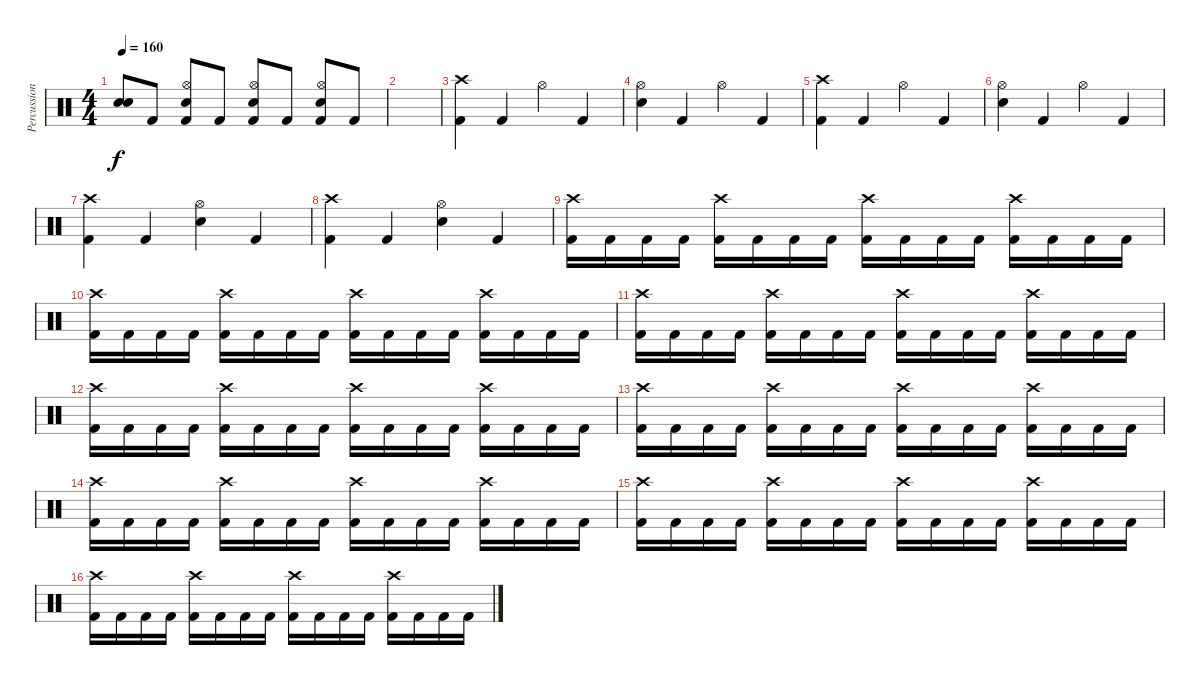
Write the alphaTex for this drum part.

\track ("Percussion" "Percussion") {instrument percussion}
\staff {score}
\articulation defaults
\ts (4 4)
\tempo 160
\clef neutral
\ks c
("Snare (hit)"{t} "Snare (hit)"{t}).8{dy f} "Kick (hit) 2".8 ("Hi-Hat (open)" "Electric Snare (hit)" "Kick (hit) 2").8 "Kick (hit) 2".8 ("Hi-Hat (open)" "Electric Snare (hit)" "Kick (hit) 2").8 "Kick (hit) 2".8 ("Hi-Hat (open)" "Electric Snare (hit)" "Kick (hit) 2").8 "Kick (hit) 2".8 |
|
("Crash high (hit)" "Kick (hit) 2").4 "Kick (hit) 2".4 "Hi-Hat (open)".4 "Kick (hit) 2".4 |
("Hi-Hat (open)" "Electric Snare (hit)").4 "Kick (hit) 2".4 "Hi-Hat (open)".4 "Kick (hit) 2".4 |
("Crash high (hit)" "Kick (hit) 2").4 "Kick (hit) 2".4 "Hi-Hat (open)".4 "Kick (hit) 2".4 |
("Hi-Hat (open)" "Electric Snare (hit)").4 "Kick (hit) 2".4 "Hi-Hat (open)".4 "Kick (hit) 2".4 |
("Crash high (hit)" "Kick (hit) 2").4 "Kick (hit) 2".4 ("Hi-Hat (open)" "Electric Snare (hit)").4 "Kick (hit) 2".4 |
("Crash high (hit)" "Kick (hit) 2").4 "Kick (hit) 2".4 ("Hi-Hat (open)" "Electric Snare (hit)").4 "Kick (hit) 2".4 |
("Crash high (hit)" "Kick (hit) 2").16 "Kick (hit) 2".16 "Kick (hit) 2".16 "Kick (hit) 2".16 ("Crash high (hit)" "Kick (hit) 2").16 "Kick (hit) 2".16 "Kick (hit) 2".16 "Kick (hit) 2".16 ("Crash high (hit)" "Kick (hit) 2").16 "Kick (hit) 2".16 "Kick (hit) 2".16 "Kick (hit) 2".16 ("Crash high (hit)" "Kick (hit) 2").16 "Kick (hit) 2".16 "Kick (hit) 2".16 "Kick (hit) 2".16 |
("Crash high (hit)" "Kick (hit) 2").16 "Kick (hit) 2".16 "Kick (hit) 2".16 "Kick (hit) 2".16 ("Crash high (hit)" "Kick (hit) 2").16 "Kick (hit) 2".16 "Kick (hit) 2".16 "Kick (hit) 2".16 ("Crash high (hit)" "Kick (hit) 2").16 "Kick (hit) 2".16 "Kick (hit) 2".16 "Kick (hit) 2".16 ("Crash high (hit)" "Kick (hit) 2").16 "Kick (hit) 2".16 "Kick (hit) 2".16 "Kick (hit) 2".16 |
("Crash high (hit)" "Kick (hit) 2").16 "Kick (hit) 2".16 "Kick (hit) 2".16 "Kick (hit) 2".16 ("Crash high (hit)" "Kick (hit) 2").16 "Kick (hit) 2".16 "Kick (hit) 2".16 "Kick (hit) 2".16 ("Crash high (hit)" "Kick (hit) 2").16 "Kick (hit) 2".16 "Kick (hit) 2".16 "Kick (hit) 2".16 ("Crash high (hit)" "Kick (hit) 2").16 "Kick (hit) 2".16 "Kick (hit) 2".16 "Kick (hit) 2".16 |
("Crash high (hit)" "Kick (hit) 2").16 "Kick (hit) 2".16 "Kick (hit) 2".16 "Kick (hit) 2".16 ("Crash high (hit)" "Kick (hit) 2").16 "Kick (hit) 2".16 "Kick (hit) 2".16 "Kick (hit) 2".16 ("Crash high (hit)" "Kick (hit) 2").16 "Kick (hit) 2".16 "Kick (hit) 2".16 "Kick (hit) 2".16 ("Crash high (hit)" "Kick (hit) 2").16 "Kick (hit) 2".16 "Kick (hit) 2".16 "Kick (hit) 2".16 |
("Crash high (hit)" "Kick (hit) 2").16 "Kick (hit) 2".16 "Kick (hit) 2".16 "Kick (hit) 2".16 ("Crash high (hit)" "Kick (hit) 2").16 "Kick (hit) 2".16 "Kick (hit) 2".16 "Kick (hit) 2".16 ("Crash high (hit)" "Kick (hit) 2").16 "Kick (hit) 2".16 "Kick (hit) 2".16 "Kick (hit) 2".16 ("Crash high (hit)" "Kick (hit) 2").16 "Kick (hit) 2".16 "Kick (hit) 2".16 "Kick (hit) 2".16 |
("Crash high (hit)" "Kick (hit) 2").16 "Kick (hit) 2".16 "Kick (hit) 2".16 "Kick (hit) 2".16 ("Crash high (hit)" "Kick (hit) 2").16 "Kick (hit) 2".16 "Kick (hit) 2".16 "Kick (hit) 2".16 ("Crash high (hit)" "Kick (hit) 2").16 "Kick (hit) 2".16 "Kick (hit) 2".16 "Kick (hit) 2".16 ("Crash high (hit)" "Kick (hit) 2").16 "Kick (hit) 2".16 "Kick (hit) 2".16 "Kick (hit) 2".16 |
("Crash high (hit)" "Kick (hit) 2").16 "Kick (hit) 2".16 "Kick (hit) 2".16 "Kick (hit) 2".16 ("Crash high (hit)" "Kick (hit) 2").16 "Kick (hit) 2".16 "Kick (hit) 2".16 "Kick (hit) 2".16 ("Crash high (hit)" "Kick (hit) 2").16 "Kick (hit) 2".16 "Kick (hit) 2".16 "Kick (hit) 2".16 ("Crash high (hit)" "Kick (hit) 2").16 "Kick (hit) 2".16 "Kick (hit) 2".16 "Kick (hit) 2".16 |
("Crash high (hit)" "Kick (hit) 2").16 "Kick (hit) 2".16 "Kick (hit) 2".16 "Kick (hit) 2".16 ("Crash high (hit)" "Kick (hit) 2").16 "Kick (hit) 2".16 "Kick (hit) 2".16 "Kick (hit) 2".16 ("Crash high (hit)" "Kick (hit) 2").16 "Kick (hit) 2".16 "Kick (hit) 2".16 "Kick (hit) 2".16 ("Crash high (hit)" "Kick (hit) 2").16 "Kick (hit) 2".16 "Kick (hit) 2".16 "Kick (hit) 2".16
